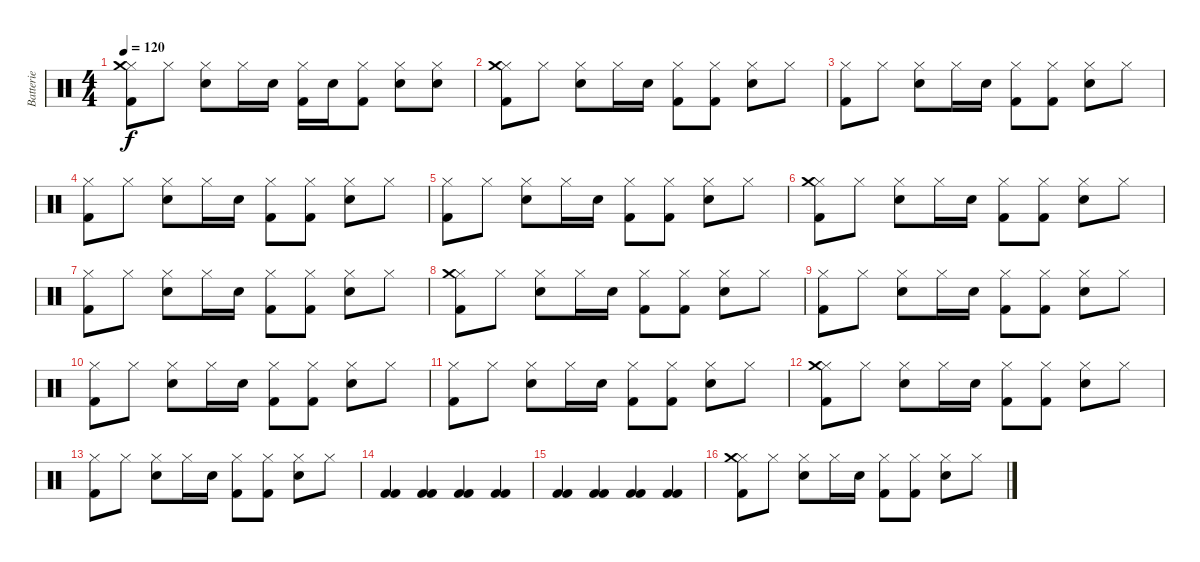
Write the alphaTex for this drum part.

\track ("Batterie" "Batterie") {instrument percussion}
\staff {score}
\articulation defaults
\ts (4 4)
\tempo 120
\clef neutral
\ks c
("Kick (hit) 2" "Hi-Hat (closed)" "Crash medium (hit)").8{dy f} "Hi-Hat (closed)".8 ("Snare (hit) 2" "Hi-Hat (closed)").8 "Hi-Hat (closed)".16 "Snare (hit) 2".16 ("Kick (hit) 2" "Hi-Hat (closed)").16 "Snare (hit) 2".16 ("Kick (hit) 2" "Hi-Hat (closed)").8 ("Snare (hit) 2" "Hi-Hat (closed)").8 ("Snare (hit) 2" "Hi-Hat (closed)").8 |
("Kick (hit) 2" "Hi-Hat (closed)" "Crash medium (hit)").8 "Hi-Hat (closed)".8 ("Snare (hit) 2" "Hi-Hat (closed)").8 "Hi-Hat (closed)".16 "Snare (hit) 2".16 ("Kick (hit) 2" "Hi-Hat (closed)").8 ("Kick (hit) 2" "Hi-Hat (closed)").8 ("Snare (hit) 2" "Hi-Hat (closed)").8 "Hi-Hat (closed)".8 |
("Kick (hit) 2" "Hi-Hat (closed)").8 "Hi-Hat (closed)".8 ("Snare (hit) 2" "Hi-Hat (closed)").8 "Hi-Hat (closed)".16 "Snare (hit) 2".16 ("Kick (hit) 2" "Hi-Hat (closed)").8 ("Kick (hit) 2" "Hi-Hat (closed)").8 ("Snare (hit) 2" "Hi-Hat (closed)").8 "Hi-Hat (closed)".8 |
("Kick (hit) 2" "Hi-Hat (closed)").8 "Hi-Hat (closed)".8 ("Snare (hit) 2" "Hi-Hat (closed)").8 "Hi-Hat (closed)".16 "Snare (hit) 2".16 ("Kick (hit) 2" "Hi-Hat (closed)").8 ("Kick (hit) 2" "Hi-Hat (closed)").8 ("Snare (hit) 2" "Hi-Hat (closed)").8 "Hi-Hat (closed)".8 |
("Kick (hit) 2" "Hi-Hat (closed)").8 "Hi-Hat (closed)".8 ("Snare (hit) 2" "Hi-Hat (closed)").8 "Hi-Hat (closed)".16 "Snare (hit) 2".16 ("Kick (hit) 2" "Hi-Hat (closed)").8 ("Kick (hit) 2" "Hi-Hat (closed)").8 ("Snare (hit) 2" "Hi-Hat (closed)").8 "Hi-Hat (closed)".8 |
("Kick (hit) 2" "Hi-Hat (closed)" "Crash medium (hit)").8 "Hi-Hat (closed)".8 ("Snare (hit) 2" "Hi-Hat (closed)").8 "Hi-Hat (closed)".16 "Snare (hit) 2".16 ("Kick (hit) 2" "Hi-Hat (closed)").8 ("Kick (hit) 2" "Hi-Hat (closed)").8 ("Snare (hit) 2" "Hi-Hat (closed)").8 "Hi-Hat (closed)".8 |
("Kick (hit) 2" "Hi-Hat (closed)").8 "Hi-Hat (closed)".8 ("Snare (hit) 2" "Hi-Hat (closed)").8 "Hi-Hat (closed)".16 "Snare (hit) 2".16 ("Kick (hit) 2" "Hi-Hat (closed)").8 ("Kick (hit) 2" "Hi-Hat (closed)").8 ("Snare (hit) 2" "Hi-Hat (closed)").8 "Hi-Hat (closed)".8 |
("Kick (hit) 2" "Hi-Hat (closed)" "Crash medium (hit)").8 "Hi-Hat (closed)".8 ("Snare (hit) 2" "Hi-Hat (closed)").8 "Hi-Hat (closed)".16 "Snare (hit) 2".16 ("Kick (hit) 2" "Hi-Hat (closed)").8 ("Kick (hit) 2" "Hi-Hat (closed)").8 ("Snare (hit) 2" "Hi-Hat (closed)").8 "Hi-Hat (closed)".8 |
("Kick (hit) 2" "Hi-Hat (closed)").8 "Hi-Hat (closed)".8 ("Snare (hit) 2" "Hi-Hat (closed)").8 "Hi-Hat (closed)".16 "Snare (hit) 2".16 ("Kick (hit) 2" "Hi-Hat (closed)").8 ("Kick (hit) 2" "Hi-Hat (closed)").8 ("Snare (hit) 2" "Hi-Hat (closed)").8 "Hi-Hat (closed)".8 |
("Kick (hit) 2" "Hi-Hat (closed)").8 "Hi-Hat (closed)".8 ("Snare (hit) 2" "Hi-Hat (closed)").8 "Hi-Hat (closed)".16 "Snare (hit) 2".16 ("Kick (hit) 2" "Hi-Hat (closed)").8 ("Kick (hit) 2" "Hi-Hat (closed)").8 ("Snare (hit) 2" "Hi-Hat (closed)").8 "Hi-Hat (closed)".8 |
("Kick (hit) 2" "Hi-Hat (closed)").8 "Hi-Hat (closed)".8 ("Snare (hit) 2" "Hi-Hat (closed)").8 "Hi-Hat (closed)".16 "Snare (hit) 2".16 ("Kick (hit) 2" "Hi-Hat (closed)").8 ("Kick (hit) 2" "Hi-Hat (closed)").8 ("Snare (hit) 2" "Hi-Hat (closed)").8 "Hi-Hat (closed)".8 |
("Kick (hit) 2" "Hi-Hat (closed)" "Crash medium (hit)").8 "Hi-Hat (closed)".8 ("Snare (hit) 2" "Hi-Hat (closed)").8 "Hi-Hat (closed)".16 "Snare (hit) 2".16 ("Kick (hit) 2" "Hi-Hat (closed)").8 ("Kick (hit) 2" "Hi-Hat (closed)").8 ("Snare (hit) 2" "Hi-Hat (closed)").8 "Hi-Hat (closed)".8 |
("Kick (hit) 2" "Hi-Hat (closed)").8 "Hi-Hat (closed)".8 ("Snare (hit) 2" "Hi-Hat (closed)").8 "Hi-Hat (closed)".16 "Snare (hit) 2".16 ("Kick (hit) 2" "Hi-Hat (closed)").8 ("Kick (hit) 2" "Hi-Hat (closed)").8 ("Snare (hit) 2" "Hi-Hat (closed)").8 "Hi-Hat (closed)".8 |
("Kick (hit) 2" "Kick (hit) 2").4 ("Kick (hit) 2" "Kick (hit) 2").4 ("Kick (hit) 2" "Kick (hit) 2").4 ("Kick (hit) 2" "Kick (hit) 2").4 |
("Kick (hit) 2" "Kick (hit) 2").4 ("Kick (hit) 2" "Kick (hit) 2").4 ("Kick (hit) 2" "Kick (hit) 2").4 ("Kick (hit) 2" "Kick (hit) 2").4 |
("Kick (hit) 2" "Hi-Hat (closed)" "Crash medium (hit)").8 "Hi-Hat (closed)".8 ("Snare (hit) 2" "Hi-Hat (closed)").8 "Hi-Hat (closed)".16 "Snare (hit) 2".16 ("Kick (hit) 2" "Hi-Hat (closed)").8 ("Kick (hit) 2" "Hi-Hat (closed)").8 ("Snare (hit) 2" "Hi-Hat (closed)").8 "Hi-Hat (closed)".8
